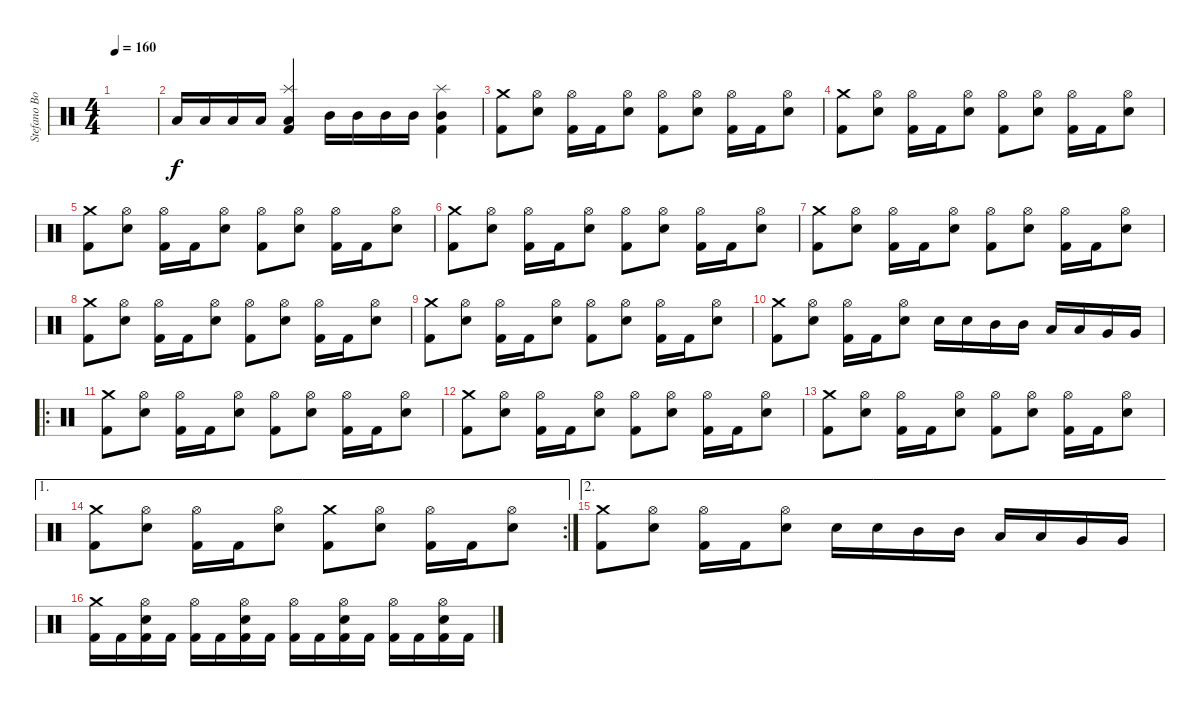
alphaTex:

\track ("Stefano Bonini" "Stefano Bo") {instrument percussion}
\staff {score}
\articulation defaults
\ts (4 4)
\tempo 160
\clef neutral
\ks c
|
"Low Tom (hit)".16 "Low Tom (hit)".16 "Low Tom (hit)".16 "Low Tom (hit)".16 ("Splash (hit)" "Low Tom (hit)" "Kick (hit) 2").4 "Mid Tom (hit)".16 "Mid Tom (hit)".16 "Mid Tom (hit)".16 "Mid Tom (hit)".16 ("Splash (hit)" "Mid Tom (hit)" "Kick (hit) 2").4 |
("Crash medium (hit)" "Kick (hit) 2").8 ("Hi-Hat (open)" "Snare (hit) 2").8 ("Hi-Hat (open)" "Kick (hit) 2").16 "Kick (hit) 2".16 ("Hi-Hat (open)" "Snare (hit) 2").8 ("Hi-Hat (open)" "Kick (hit) 2").8 ("Hi-Hat (open)" "Snare (hit) 2").8 ("Hi-Hat (open)" "Kick (hit) 2").16 "Kick (hit) 2".16 ("Hi-Hat (open)" "Snare (hit) 2").8 |
("Crash medium (hit)" "Kick (hit) 2").8 ("Hi-Hat (open)" "Snare (hit) 2").8 ("Hi-Hat (open)" "Kick (hit) 2").16 "Kick (hit) 2".16 ("Hi-Hat (open)" "Snare (hit) 2").8 ("Hi-Hat (open)" "Kick (hit) 2").8 ("Hi-Hat (open)" "Snare (hit) 2").8 ("Hi-Hat (open)" "Kick (hit) 2").16 "Kick (hit) 2".16 ("Hi-Hat (open)" "Snare (hit) 2").8 |
("Crash medium (hit)" "Kick (hit) 2").8 ("Hi-Hat (open)" "Snare (hit) 2").8 ("Hi-Hat (open)" "Kick (hit) 2").16 "Kick (hit) 2".16 ("Hi-Hat (open)" "Snare (hit) 2").8 ("Hi-Hat (open)" "Kick (hit) 2").8 ("Hi-Hat (open)" "Snare (hit) 2").8 ("Hi-Hat (open)" "Kick (hit) 2").16 "Kick (hit) 2".16 ("Hi-Hat (open)" "Snare (hit) 2").8 |
("Crash medium (hit)" "Kick (hit) 2").8 ("Hi-Hat (open)" "Snare (hit) 2").8 ("Hi-Hat (open)" "Kick (hit) 2").16 "Kick (hit) 2".16 ("Hi-Hat (open)" "Snare (hit) 2").8 ("Hi-Hat (open)" "Kick (hit) 2").8 ("Hi-Hat (open)" "Snare (hit) 2").8 ("Hi-Hat (open)" "Kick (hit) 2").16 "Kick (hit) 2".16 ("Hi-Hat (open)" "Snare (hit) 2").8 |
("Crash medium (hit)" "Kick (hit) 2").8 ("Hi-Hat (open)" "Snare (hit) 2").8 ("Hi-Hat (open)" "Kick (hit) 2").16 "Kick (hit) 2".16 ("Hi-Hat (open)" "Snare (hit) 2").8 ("Hi-Hat (open)" "Kick (hit) 2").8 ("Hi-Hat (open)" "Snare (hit) 2").8 ("Hi-Hat (open)" "Kick (hit) 2").16 "Kick (hit) 2".16 ("Hi-Hat (open)" "Snare (hit) 2").8 |
("Crash medium (hit)" "Kick (hit) 2").8 ("Hi-Hat (open)" "Snare (hit) 2").8 ("Hi-Hat (open)" "Kick (hit) 2").16 "Kick (hit) 2".16 ("Hi-Hat (open)" "Snare (hit) 2").8 ("Hi-Hat (open)" "Kick (hit) 2").8 ("Hi-Hat (open)" "Snare (hit) 2").8 ("Hi-Hat (open)" "Kick (hit) 2").16 "Kick (hit) 2".16 ("Hi-Hat (open)" "Snare (hit) 2").8 |
("Crash medium (hit)" "Kick (hit) 2").8 ("Hi-Hat (open)" "Snare (hit) 2").8 ("Hi-Hat (open)" "Kick (hit) 2").16 "Kick (hit) 2".16 ("Hi-Hat (open)" "Snare (hit) 2").8 ("Hi-Hat (open)" "Kick (hit) 2").8 ("Hi-Hat (open)" "Snare (hit) 2").8 ("Hi-Hat (open)" "Kick (hit) 2").16 "Kick (hit) 2".16 ("Hi-Hat (open)" "Snare (hit) 2").8 |
("Crash medium (hit)" "Kick (hit) 2").8 ("Hi-Hat (open)" "Snare (hit) 2").8 ("Hi-Hat (open)" "Kick (hit) 2").16 "Kick (hit) 2".16 ("Hi-Hat (open)" "Snare (hit) 2").8 "Snare (hit) 2".16 "Snare (hit) 2".16 "Mid Tom (hit)".16 "Mid Tom (hit)".16 "Low Tom (hit)".16 "Low Tom (hit)".16 "Very Low Tom (hit)".16 "Very Low Tom (hit)".16 |
\ro
("Crash medium (hit)" "Kick (hit) 2").8 ("Hi-Hat (open)" "Snare (hit) 2").8 ("Hi-Hat (open)" "Kick (hit) 2").16 "Kick (hit) 2".16 ("Hi-Hat (open)" "Snare (hit) 2").8 ("Hi-Hat (open)" "Kick (hit) 2").8 ("Hi-Hat (open)" "Snare (hit) 2").8 ("Hi-Hat (open)" "Kick (hit) 2").16 "Kick (hit) 2".16 ("Hi-Hat (open)" "Snare (hit) 2").8 |
("Crash medium (hit)" "Kick (hit) 2").8 ("Hi-Hat (open)" "Snare (hit) 2").8 ("Hi-Hat (open)" "Kick (hit) 2").16 "Kick (hit) 2".16 ("Hi-Hat (open)" "Snare (hit) 2").8 ("Hi-Hat (open)" "Kick (hit) 2").8 ("Hi-Hat (open)" "Snare (hit) 2").8 ("Hi-Hat (open)" "Kick (hit) 2").16 "Kick (hit) 2".16 ("Hi-Hat (open)" "Snare (hit) 2").8 |
("Crash medium (hit)" "Kick (hit) 2").8 ("Hi-Hat (open)" "Snare (hit) 2").8 ("Hi-Hat (open)" "Kick (hit) 2").16 "Kick (hit) 2".16 ("Hi-Hat (open)" "Snare (hit) 2").8 ("Hi-Hat (open)" "Kick (hit) 2").8 ("Hi-Hat (open)" "Snare (hit) 2").8 ("Hi-Hat (open)" "Kick (hit) 2").16 "Kick (hit) 2".16 ("Hi-Hat (open)" "Snare (hit) 2").8 |
\ae 1
\rc 2
("Crash medium (hit)" "Kick (hit) 2").8 ("Hi-Hat (open)" "Snare (hit) 2").8 ("Hi-Hat (open)" "Kick (hit) 2").16 "Kick (hit) 2".16 ("Hi-Hat (open)" "Snare (hit) 2").8 ("Crash medium (hit)" "Kick (hit) 2").8 ("Hi-Hat (open)" "Snare (hit) 2").8 ("Hi-Hat (open)" "Kick (hit) 2").16 "Kick (hit) 2".16 ("Hi-Hat (open)" "Snare (hit) 2").8 |
\ae 2
("Crash medium (hit)" "Kick (hit) 2").8 ("Hi-Hat (open)" "Snare (hit) 2").8 ("Hi-Hat (open)" "Kick (hit) 2").16 "Kick (hit) 2".16 ("Hi-Hat (open)" "Snare (hit) 2").8 "Snare (hit) 2".16 "Snare (hit) 2".16 "Mid Tom (hit)".16 "Mid Tom (hit)".16 "Low Tom (hit)".16 "Low Tom (hit)".16 "Very Low Tom (hit)".16 "Very Low Tom (hit)".16 |
("Crash medium (hit)" "Kick (hit) 2").16 "Kick (hit) 2".16 ("Hi-Hat (open)" "Snare (hit) 2" "Kick (hit) 2").16 "Kick (hit) 2".16 ("Hi-Hat (open)" "Kick (hit) 2").16 "Kick (hit) 2".16 ("Hi-Hat (open)" "Snare (hit) 2" "Kick (hit) 2").16 "Kick (hit) 2".16 ("Hi-Hat (open)" "Kick (hit) 2").16 "Kick (hit) 2".16 ("Hi-Hat (open)" "Snare (hit) 2" "Kick (hit) 2").16 "Kick (hit) 2".16 ("Hi-Hat (open)" "Kick (hit) 2").16 "Kick (hit) 2".16 ("Hi-Hat (open)" "Snare (hit) 2" "Kick (hit) 2").16 "Kick (hit) 2".16
